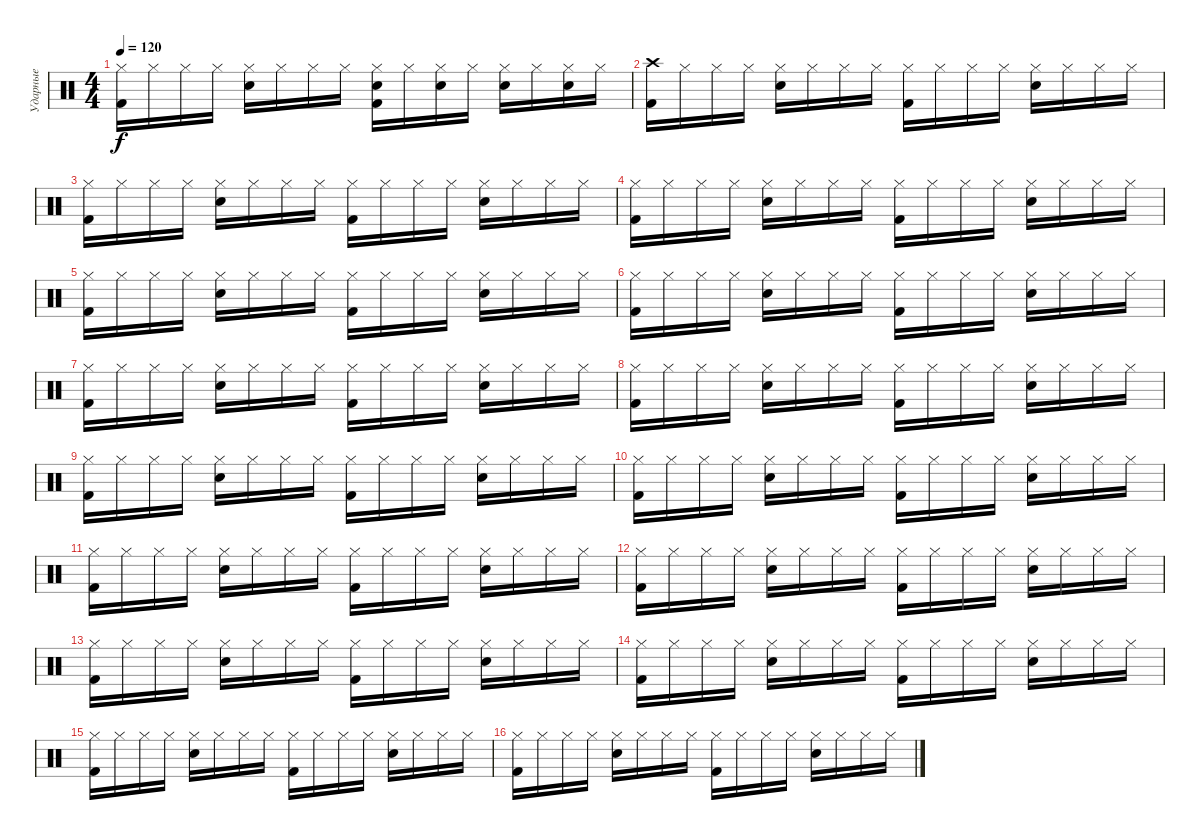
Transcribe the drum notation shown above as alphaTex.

\track ("Ударные" "Ударные") {instrument percussion}
\staff {score}
\articulation defaults
\ts (4 4)
\tempo 120
\clef neutral
\ks c
("Kick (hit) 2" "Hi-Hat (closed)").16{dy f} "Hi-Hat (closed)".16 "Hi-Hat (closed)".16 "Hi-Hat (closed)".16 ("Hi-Hat (closed)" "Snare (hit) 2").16 "Hi-Hat (closed)".16 "Hi-Hat (closed)".16 "Hi-Hat (closed)".16 ("Kick (hit) 2" "Hi-Hat (closed)" "Snare (hit) 2").16 "Hi-Hat (closed)".16 ("Hi-Hat (closed)" "Snare (hit) 2").16 "Hi-Hat (closed)".16 ("Hi-Hat (closed)" "Snare (hit) 2").16 "Hi-Hat (closed)".16 ("Hi-Hat (closed)" "Snare (hit) 2").16 "Hi-Hat (closed)".16 |
("Kick (hit) 2" "Crash high (hit)").16 "Hi-Hat (closed)".16 "Hi-Hat (closed)".16 "Hi-Hat (closed)".16 ("Hi-Hat (closed)" "Snare (hit) 2").16 "Hi-Hat (closed)".16 "Hi-Hat (closed)".16 "Hi-Hat (closed)".16 ("Kick (hit) 2" "Hi-Hat (closed)").16 "Hi-Hat (closed)".16 "Hi-Hat (closed)".16 "Hi-Hat (closed)".16 ("Hi-Hat (closed)" "Snare (hit) 2").16 "Hi-Hat (closed)".16 "Hi-Hat (closed)".16 "Hi-Hat (closed)".16 |
("Kick (hit) 2" "Hi-Hat (closed)").16 "Hi-Hat (closed)".16 "Hi-Hat (closed)".16 "Hi-Hat (closed)".16 ("Hi-Hat (closed)" "Snare (hit) 2").16 "Hi-Hat (closed)".16 "Hi-Hat (closed)".16 "Hi-Hat (closed)".16 ("Kick (hit) 2" "Hi-Hat (closed)").16 "Hi-Hat (closed)".16 "Hi-Hat (closed)".16 "Hi-Hat (closed)".16 ("Hi-Hat (closed)" "Snare (hit) 2").16 "Hi-Hat (closed)".16 "Hi-Hat (closed)".16 "Hi-Hat (closed)".16 |
("Kick (hit) 2" "Hi-Hat (closed)").16 "Hi-Hat (closed)".16 "Hi-Hat (closed)".16 "Hi-Hat (closed)".16 ("Hi-Hat (closed)" "Snare (hit) 2").16 "Hi-Hat (closed)".16 "Hi-Hat (closed)".16 "Hi-Hat (closed)".16 ("Kick (hit) 2" "Hi-Hat (closed)").16 "Hi-Hat (closed)".16 "Hi-Hat (closed)".16 "Hi-Hat (closed)".16 ("Hi-Hat (closed)" "Snare (hit) 2").16 "Hi-Hat (closed)".16 "Hi-Hat (closed)".16 "Hi-Hat (closed)".16 |
("Kick (hit) 2" "Hi-Hat (closed)").16 "Hi-Hat (closed)".16 "Hi-Hat (closed)".16 "Hi-Hat (closed)".16 ("Hi-Hat (closed)" "Snare (hit) 2").16 "Hi-Hat (closed)".16 "Hi-Hat (closed)".16 "Hi-Hat (closed)".16 ("Kick (hit) 2" "Hi-Hat (closed)").16 "Hi-Hat (closed)".16 "Hi-Hat (closed)".16 "Hi-Hat (closed)".16 ("Hi-Hat (closed)" "Snare (hit) 2").16 "Hi-Hat (closed)".16 "Hi-Hat (closed)".16 "Hi-Hat (closed)".16 |
("Kick (hit) 2" "Hi-Hat (closed)").16 "Hi-Hat (closed)".16 "Hi-Hat (closed)".16 "Hi-Hat (closed)".16 ("Hi-Hat (closed)" "Snare (hit) 2").16 "Hi-Hat (closed)".16 "Hi-Hat (closed)".16 "Hi-Hat (closed)".16 ("Kick (hit) 2" "Hi-Hat (closed)").16 "Hi-Hat (closed)".16 "Hi-Hat (closed)".16 "Hi-Hat (closed)".16 ("Hi-Hat (closed)" "Snare (hit) 2").16 "Hi-Hat (closed)".16 "Hi-Hat (closed)".16 "Hi-Hat (closed)".16 |
("Kick (hit) 2" "Hi-Hat (closed)").16 "Hi-Hat (closed)".16 "Hi-Hat (closed)".16 "Hi-Hat (closed)".16 ("Hi-Hat (closed)" "Snare (hit) 2").16 "Hi-Hat (closed)".16 "Hi-Hat (closed)".16 "Hi-Hat (closed)".16 ("Kick (hit) 2" "Hi-Hat (closed)").16 "Hi-Hat (closed)".16 "Hi-Hat (closed)".16 "Hi-Hat (closed)".16 ("Hi-Hat (closed)" "Snare (hit) 2").16 "Hi-Hat (closed)".16 "Hi-Hat (closed)".16 "Hi-Hat (closed)".16 |
("Kick (hit) 2" "Hi-Hat (closed)").16 "Hi-Hat (closed)".16 "Hi-Hat (closed)".16 "Hi-Hat (closed)".16 ("Hi-Hat (closed)" "Snare (hit) 2").16 "Hi-Hat (closed)".16 "Hi-Hat (closed)".16 "Hi-Hat (closed)".16 ("Kick (hit) 2" "Hi-Hat (closed)").16 "Hi-Hat (closed)".16 "Hi-Hat (closed)".16 "Hi-Hat (closed)".16 ("Hi-Hat (closed)" "Snare (hit) 2").16 "Hi-Hat (closed)".16 "Hi-Hat (closed)".16 "Hi-Hat (closed)".16 |
("Kick (hit) 2" "Hi-Hat (closed)").16 "Hi-Hat (closed)".16 "Hi-Hat (closed)".16 "Hi-Hat (closed)".16 ("Hi-Hat (closed)" "Snare (hit) 2").16 "Hi-Hat (closed)".16 "Hi-Hat (closed)".16 "Hi-Hat (closed)".16 ("Kick (hit) 2" "Hi-Hat (closed)").16 "Hi-Hat (closed)".16 "Hi-Hat (closed)".16 "Hi-Hat (closed)".16 ("Hi-Hat (closed)" "Snare (hit) 2").16 "Hi-Hat (closed)".16 "Hi-Hat (closed)".16 "Hi-Hat (closed)".16 |
("Kick (hit) 2" "Hi-Hat (closed)").16 "Hi-Hat (closed)".16 "Hi-Hat (closed)".16 "Hi-Hat (closed)".16 ("Hi-Hat (closed)" "Snare (hit) 2").16 "Hi-Hat (closed)".16 "Hi-Hat (closed)".16 "Hi-Hat (closed)".16 ("Kick (hit) 2" "Hi-Hat (closed)").16 "Hi-Hat (closed)".16 "Hi-Hat (closed)".16 "Hi-Hat (closed)".16 ("Hi-Hat (closed)" "Snare (hit) 2").16 "Hi-Hat (closed)".16 "Hi-Hat (closed)".16 "Hi-Hat (closed)".16 |
("Kick (hit) 2" "Hi-Hat (closed)").16 "Hi-Hat (closed)".16 "Hi-Hat (closed)".16 "Hi-Hat (closed)".16 ("Hi-Hat (closed)" "Snare (hit) 2").16 "Hi-Hat (closed)".16 "Hi-Hat (closed)".16 "Hi-Hat (closed)".16 ("Kick (hit) 2" "Hi-Hat (closed)").16 "Hi-Hat (closed)".16 "Hi-Hat (closed)".16 "Hi-Hat (closed)".16 ("Hi-Hat (closed)" "Snare (hit) 2").16 "Hi-Hat (closed)".16 "Hi-Hat (closed)".16 "Hi-Hat (closed)".16 |
("Kick (hit) 2" "Hi-Hat (closed)").16 "Hi-Hat (closed)".16 "Hi-Hat (closed)".16 "Hi-Hat (closed)".16 ("Hi-Hat (closed)" "Snare (hit) 2").16 "Hi-Hat (closed)".16 "Hi-Hat (closed)".16 "Hi-Hat (closed)".16 ("Kick (hit) 2" "Hi-Hat (closed)").16 "Hi-Hat (closed)".16 "Hi-Hat (closed)".16 "Hi-Hat (closed)".16 ("Hi-Hat (closed)" "Snare (hit) 2").16 "Hi-Hat (closed)".16 "Hi-Hat (closed)".16 "Hi-Hat (closed)".16 |
("Kick (hit) 2" "Hi-Hat (closed)").16 "Hi-Hat (closed)".16 "Hi-Hat (closed)".16 "Hi-Hat (closed)".16 ("Hi-Hat (closed)" "Snare (hit) 2").16 "Hi-Hat (closed)".16 "Hi-Hat (closed)".16 "Hi-Hat (closed)".16 ("Kick (hit) 2" "Hi-Hat (closed)").16 "Hi-Hat (closed)".16 "Hi-Hat (closed)".16 "Hi-Hat (closed)".16 ("Hi-Hat (closed)" "Snare (hit) 2").16 "Hi-Hat (closed)".16 "Hi-Hat (closed)".16 "Hi-Hat (closed)".16 |
("Kick (hit) 2" "Hi-Hat (closed)").16 "Hi-Hat (closed)".16 "Hi-Hat (closed)".16 "Hi-Hat (closed)".16 ("Hi-Hat (closed)" "Snare (hit) 2").16 "Hi-Hat (closed)".16 "Hi-Hat (closed)".16 "Hi-Hat (closed)".16 ("Kick (hit) 2" "Hi-Hat (closed)").16 "Hi-Hat (closed)".16 "Hi-Hat (closed)".16 "Hi-Hat (closed)".16 ("Hi-Hat (closed)" "Snare (hit) 2").16 "Hi-Hat (closed)".16 "Hi-Hat (closed)".16 "Hi-Hat (closed)".16 |
("Kick (hit) 2" "Hi-Hat (closed)").16 "Hi-Hat (closed)".16 "Hi-Hat (closed)".16 "Hi-Hat (closed)".16 ("Hi-Hat (closed)" "Snare (hit) 2").16 "Hi-Hat (closed)".16 "Hi-Hat (closed)".16 "Hi-Hat (closed)".16 ("Kick (hit) 2" "Hi-Hat (closed)").16 "Hi-Hat (closed)".16 "Hi-Hat (closed)".16 "Hi-Hat (closed)".16 ("Hi-Hat (closed)" "Snare (hit) 2").16 "Hi-Hat (closed)".16 "Hi-Hat (closed)".16 "Hi-Hat (closed)".16 |
("Kick (hit) 2" "Hi-Hat (closed)").16 "Hi-Hat (closed)".16 "Hi-Hat (closed)".16 "Hi-Hat (closed)".16 ("Hi-Hat (closed)" "Snare (hit) 2").16 "Hi-Hat (closed)".16 "Hi-Hat (closed)".16 "Hi-Hat (closed)".16 ("Kick (hit) 2" "Hi-Hat (closed)").16 "Hi-Hat (closed)".16 "Hi-Hat (closed)".16 "Hi-Hat (closed)".16 ("Hi-Hat (closed)" "Snare (hit) 2").16 "Hi-Hat (closed)".16 "Hi-Hat (closed)".16 "Hi-Hat (closed)".16
